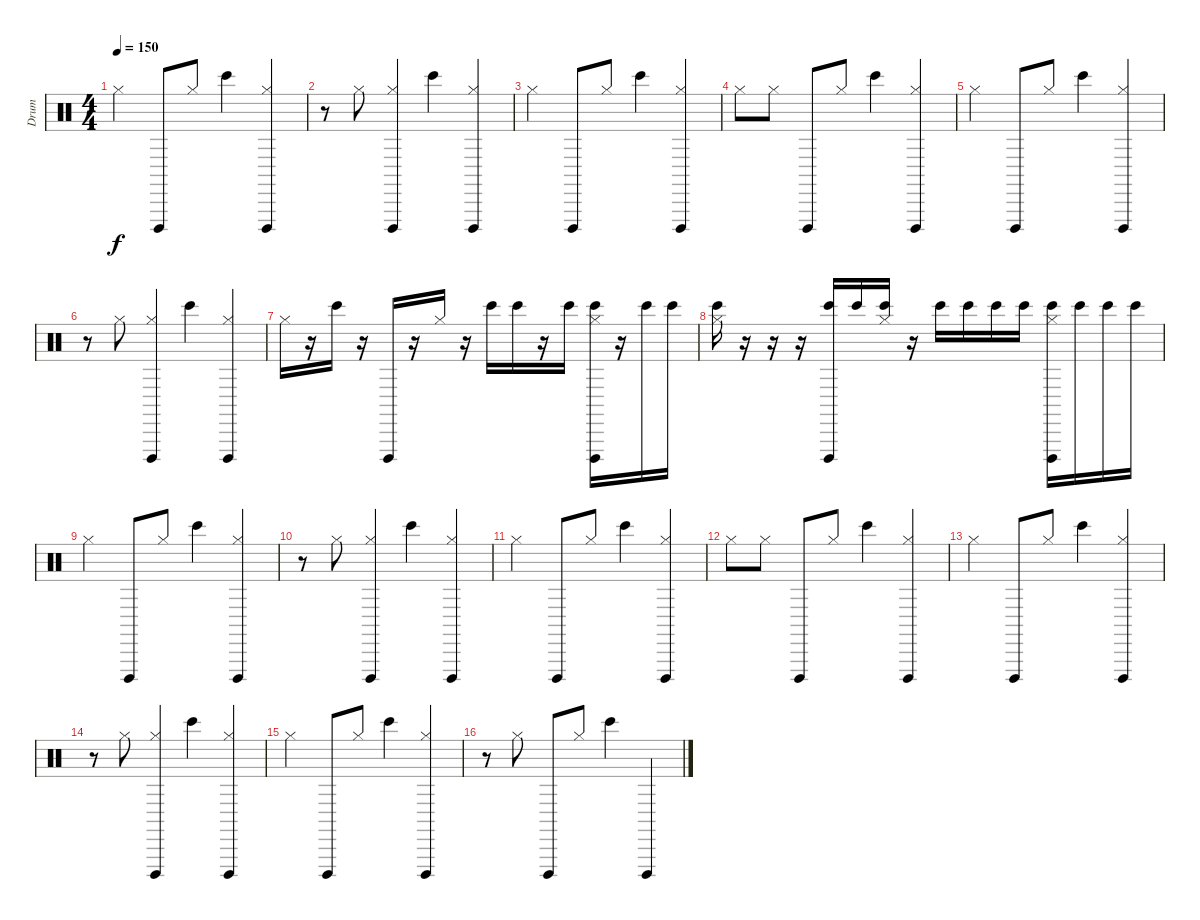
\track ("Drum" "Drum") {instrument percussion}
\staff {score}
\articulation defaults
\ts (4 4)
\tempo 150
\clef neutral
\ks c "Hi-Hat (closed)".4{dy f} "Cuica (open)".8 "Hi-Hat (closed)".8 "Bongo High (hit)".4
("Cuica (open)" "Hi-Hat (closed)").4 |
r.8 "Hi-Hat (closed)".8 ("Cuica (open)" "Hi-Hat (closed)").4 "Bongo High (hit)".4 ("Cuica (open)" "Hi-Hat (closed)").4 |
"Hi-Hat (closed)".4 "Cuica (open)".8 "Hi-Hat (closed)".8 "Bongo High (hit)".4 ("Cuica (open)" "Hi-Hat (closed)").4 |
"Hi-Hat (closed)".8 "Hi-Hat (closed)".8 "Cuica (open)".8 "Hi-Hat (closed)".8 "Bongo High (hit)".4 ("Cuica (open)" "Hi-Hat (closed)").4 |
"Hi-Hat (closed)".4 "Cuica (open)".8 "Hi-Hat (closed)".8 "Bongo High (hit)".4 ("Cuica (open)" "Hi-Hat (closed)").4 |
r.8 "Hi-Hat (closed)".8 ("Cuica (open)" "Hi-Hat (closed)").4 "Bongo High (hit)".4 ("Cuica (open)" "Hi-Hat (closed)").4 |
"Hi-Hat (closed)".16 r.16 "Bongo High (hit)".16 r.16 "Cuica (open)".16 r.16 "Hi-Hat (closed)".16 r.16 "Bongo High (hit)".16 "Bongo High (hit)".16 r.16 "Bongo High (hit)".16 ("Cuica (open)" "Bongo High (hit)" "Hi-Hat (closed)").16 r.16 "Bongo High (hit)".16 "Bongo High (hit)".16 |
("Bongo High (hit)" "Hi-Hat (closed)").16 r.16 r.16 r.16 ("Cuica (open)" "Bongo High (hit)").16 "Bongo High (hit)".16 ("Bongo High (hit)" "Hi-Hat (closed)").16 r.16 "Bongo High (hit)".16 "Bongo High (hit)".16 "Bongo High (hit)".16 "Bongo High (hit)".16 ("Cuica (open)" "Bongo High (hit)" "Hi-Hat (closed)").16 "Bongo High (hit)".16 "Bongo High (hit)".16 "Bongo High (hit)".16 |
"Hi-Hat (closed)".4 "Cuica (open)".8 "Hi-Hat (closed)".8 "Bongo High (hit)".4 ("Cuica (open)" "Hi-Hat (closed)").4 |
r.8 "Hi-Hat (closed)".8 ("Cuica (open)" "Hi-Hat (closed)").4 "Bongo High (hit)".4 ("Cuica (open)" "Hi-Hat (closed)").4 |
"Hi-Hat (closed)".4 "Cuica (open)".8 "Hi-Hat (closed)".8 "Bongo High (hit)".4 ("Cuica (open)" "Hi-Hat (closed)").4 |
"Hi-Hat (closed)".8 "Hi-Hat (closed)".8 "Cuica (open)".8 "Hi-Hat (closed)".8 "Bongo High (hit)".4 ("Cuica (open)" "Hi-Hat (closed)").4 |
"Hi-Hat (closed)".4 "Cuica (open)".8 "Hi-Hat (closed)".8 "Bongo High (hit)".4 ("Cuica (open)" "Hi-Hat (closed)").4 |
r.8 "Hi-Hat (closed)".8 ("Cuica (open)" "Hi-Hat (closed)").4 "Bongo High (hit)".4 ("Cuica (open)" "Hi-Hat (closed)").4 |
"Hi-Hat (closed)".4 "Cuica (open)".8 "Hi-Hat (closed)".8 "Bongo High (hit)".4 ("Cuica (open)" "Hi-Hat (closed)").4 |
r.8 "Hi-Hat (closed)".8 "Cuica (open)".8 "Hi-Hat (closed)".8 "Bongo High (hit)".4 "Cuica (open)".4
